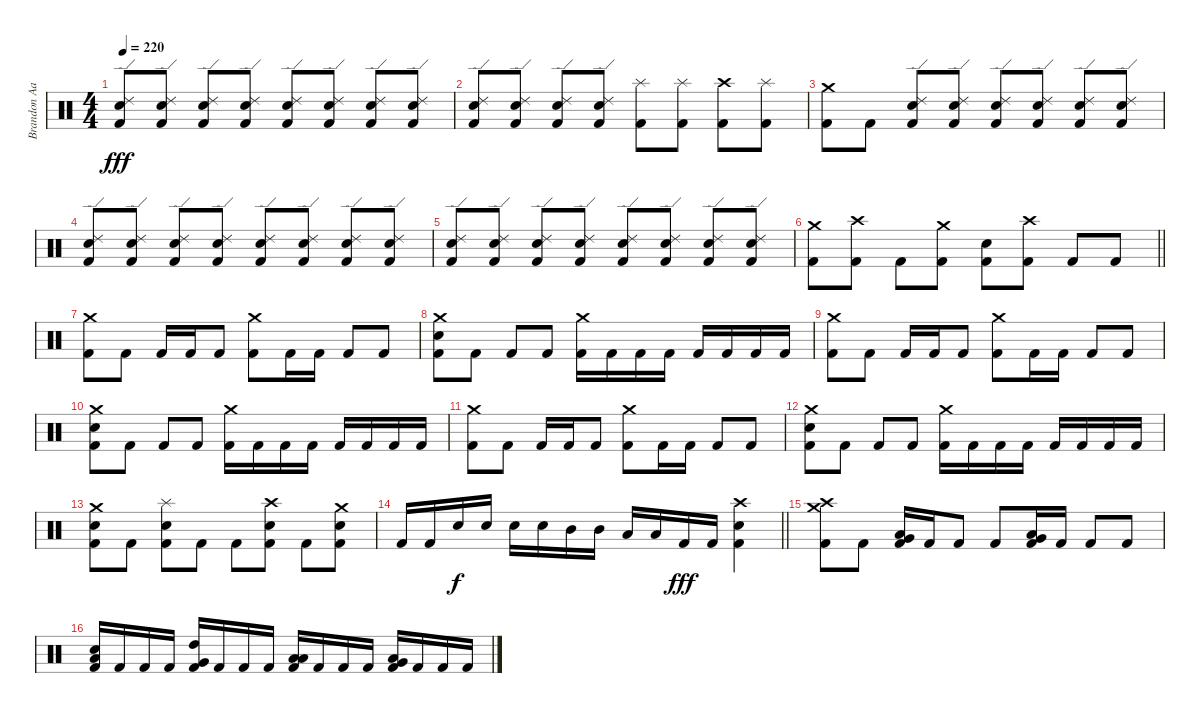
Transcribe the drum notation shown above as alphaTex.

\track ("Brandon Aaron Burkhalter" "Brandon Aa") {instrument percussion}
\staff {score}
\articulation defaults
\ts (4 4)
\tempo 220
\clef neutral
\ks c
("Ride (edge) 2" "Snare (hit) 2" "Kick (hit) 2").8{dy fff} ("Ride (edge) 2" "Snare (hit) 2" "Kick (hit) 2").8 ("Ride (edge) 2" "Snare (hit) 2" "Kick (hit) 2").8 ("Ride (edge) 2" "Snare (hit) 2" "Kick (hit) 2").8 ("Ride (edge) 2" "Snare (hit) 2" "Kick (hit) 2").8 ("Ride (edge) 2" "Snare (hit) 2" "Kick (hit) 2").8 ("Ride (edge) 2" "Snare (hit) 2" "Kick (hit) 2").8 ("Ride (edge) 2" "Snare (hit) 2" "Kick (hit) 2").8 |
("Ride (edge) 2" "Snare (hit) 2" "Kick (hit) 2").8 ("Ride (edge) 2" "Snare (hit) 2" "Kick (hit) 2").8 ("Ride (edge) 2" "Snare (hit) 2" "Kick (hit) 2").8 ("Ride (edge) 2" "Snare (hit) 2" "Kick (hit) 2").8 ("Splash (hit)" "Kick (hit) 2").8 ("Splash (hit)" "Kick (hit) 2").8 ("Crash high (hit)" "Kick (hit) 2").8 ("Splash (hit)" "Kick (hit) 2").8 |
("Crash medium (hit)" "Kick (hit) 2").8 "Kick (hit) 2".8 ("Ride (edge) 2" "Snare (hit) 2" "Kick (hit) 2").8 ("Ride (edge) 2" "Snare (hit) 2" "Kick (hit) 2").8 ("Ride (edge) 2" "Snare (hit) 2" "Kick (hit) 2").8 ("Ride (edge) 2" "Snare (hit) 2" "Kick (hit) 2").8 ("Ride (edge) 2" "Snare (hit) 2" "Kick (hit) 2").8 ("Ride (edge) 2" "Snare (hit) 2" "Kick (hit) 2").8 |
("Ride (edge) 2" "Snare (hit) 2" "Kick (hit) 2").8 ("Ride (edge) 2" "Snare (hit) 2" "Kick (hit) 2").8 ("Ride (edge) 2" "Snare (hit) 2" "Kick (hit) 2").8 ("Ride (edge) 2" "Snare (hit) 2" "Kick (hit) 2").8 ("Ride (edge) 2" "Snare (hit) 2" "Kick (hit) 2").8 ("Ride (edge) 2" "Snare (hit) 2" "Kick (hit) 2").8 ("Ride (edge) 2" "Snare (hit) 2" "Kick (hit) 2").8 ("Ride (edge) 2" "Snare (hit) 2" "Kick (hit) 2").8 |
("Ride (edge) 2" "Snare (hit) 2" "Kick (hit) 2").8 ("Ride (edge) 2" "Snare (hit) 2" "Kick (hit) 2").8 ("Ride (edge) 2" "Snare (hit) 2" "Kick (hit) 2").8 ("Ride (edge) 2" "Snare (hit) 2" "Kick (hit) 2").8 ("Ride (edge) 2" "Snare (hit) 2" "Kick (hit) 2").8 ("Ride (edge) 2" "Snare (hit) 2" "Kick (hit) 2").8 ("Ride (edge) 2" "Snare (hit) 2" "Kick (hit) 2").8 ("Ride (edge) 2" "Snare (hit) 2" "Kick (hit) 2").8 |
\barLineRight lightlight
("Crash medium (hit)" "Kick (hit) 2").8 ("Crash high (hit)" "Kick (hit) 2").8 "Kick (hit) 2".8 ("Crash medium (hit)" "Kick (hit) 2").8 ("Snare (hit) 2" "Kick (hit) 2").8 ("Crash high (hit)" "Kick (hit) 2").8 "Kick (hit) 2".8 "Kick (hit) 2".8 |
("Crash medium (hit)" "Kick (hit) 2").8 "Kick (hit) 2".8 "Kick (hit) 2".16 "Kick (hit) 2".16 "Kick (hit) 2".8 ("Crash medium (hit)" "Kick (hit) 2").8 "Kick (hit) 2".16 "Kick (hit) 2".16 "Kick (hit) 2".8 "Kick (hit) 2".8 |
("Crash medium (hit)" "Snare (hit) 2" "Kick (hit) 2").8 "Kick (hit) 2".8 "Kick (hit) 2".8 "Kick (hit) 2".8 ("Crash medium (hit)" "Kick (hit) 2").16 "Kick (hit) 2".16 "Kick (hit) 2".16 "Kick (hit) 2".16 "Kick (hit) 2".16 "Kick (hit) 2".16 "Kick (hit) 2".16 "Kick (hit) 2".16 |
("Crash medium (hit)" "Kick (hit) 2").8 "Kick (hit) 2".8 "Kick (hit) 2".16 "Kick (hit) 2".16 "Kick (hit) 2".8 ("Crash medium (hit)" "Kick (hit) 2").8 "Kick (hit) 2".16 "Kick (hit) 2".16 "Kick (hit) 2".8 "Kick (hit) 2".8 |
("Crash medium (hit)" "Snare (hit) 2" "Kick (hit) 2").8 "Kick (hit) 2".8 "Kick (hit) 2".8 "Kick (hit) 2".8 ("Crash medium (hit)" "Kick (hit) 2").16 "Kick (hit) 2".16 "Kick (hit) 2".16 "Kick (hit) 2".16 "Kick (hit) 2".16 "Kick (hit) 2".16 "Kick (hit) 2".16 "Kick (hit) 2".16 |
("Crash medium (hit)" "Kick (hit) 2").8 "Kick (hit) 2".8 "Kick (hit) 2".16 "Kick (hit) 2".16 "Kick (hit) 2".8 ("Crash medium (hit)" "Kick (hit) 2").8 "Kick (hit) 2".16 "Kick (hit) 2".16 "Kick (hit) 2".8 "Kick (hit) 2".8 |
("Crash medium (hit)" "Snare (hit) 2" "Kick (hit) 2").8 "Kick (hit) 2".8 "Kick (hit) 2".8 "Kick (hit) 2".8 ("Crash medium (hit)" "Kick (hit) 2").16 "Kick (hit) 2".16 "Kick (hit) 2".16 "Kick (hit) 2".16 "Kick (hit) 2".16 "Kick (hit) 2".16 "Kick (hit) 2".16 "Kick (hit) 2".16 |
("Crash medium (hit)" "Snare (hit) 2" "Kick (hit) 2").8 "Kick (hit) 2".8 ("Splash (hit)" "Snare (hit) 2" "Kick (hit) 2").8 "Kick (hit) 2".8 "Kick (hit) 2".8 ("Crash high (hit)" "Snare (hit) 2" "Kick (hit) 2").8 "Kick (hit) 2".8 ("Crash medium (hit)" "Snare (hit) 2" "Kick (hit) 2").8 |
\barLineRight lightlight "Kick (hit) 2".16 "Kick (hit) 2".16 "Snare (hit) 2".16{dy f} "Snare (hit) 2".16 "Snare (hit) 2".16 "Snare (hit) 2".16 "Mid Tom (hit)".16 "Mid Tom (hit)".16 "Low Tom (hit)".16 "Low Tom (hit)".16 "Kick (hit) 2".16{dy fff} "Kick (hit) 2".16
("Crash high (hit)" "Snare (hit) 2" "Kick (hit) 2").4 |
("Crash medium (hit)" "Crash high (hit)" "Kick (hit) 2").8 "Kick (hit) 2".8 ("Very Low Tom (hit)" "Low Tom (hit)" "Kick (hit) 2").16 "Kick (hit) 2".16 "Kick (hit) 2".8 "Kick (hit) 2".8 ("Very Low Tom (hit)" "Low Tom (hit)" "Kick (hit) 2").16 "Kick (hit) 2".16 "Kick (hit) 2".8 "Kick (hit) 2".8 |
("Snare (hit) 2" "Low Tom (hit)" "Kick (hit) 2").16 "Kick (hit) 2".16 "Kick (hit) 2".16 "Kick (hit) 2".16 ("High Tom (hit)" "Very Low Tom (hit)" "Kick (hit) 2").16 "Kick (hit) 2".16 "Kick (hit) 2".16 "Kick (hit) 2".16 ("Low Tom (hit)" "Low Floor Tom (hit)" "Kick (hit) 2").16 "Kick (hit) 2".16 "Kick (hit) 2".16 "Kick (hit) 2".16 ("Very Low Tom (hit)" "Low Floor Tom (hit)" "Kick (hit) 2").16 "Kick (hit) 2".16 "Kick (hit) 2".16 "Kick (hit) 2".16
